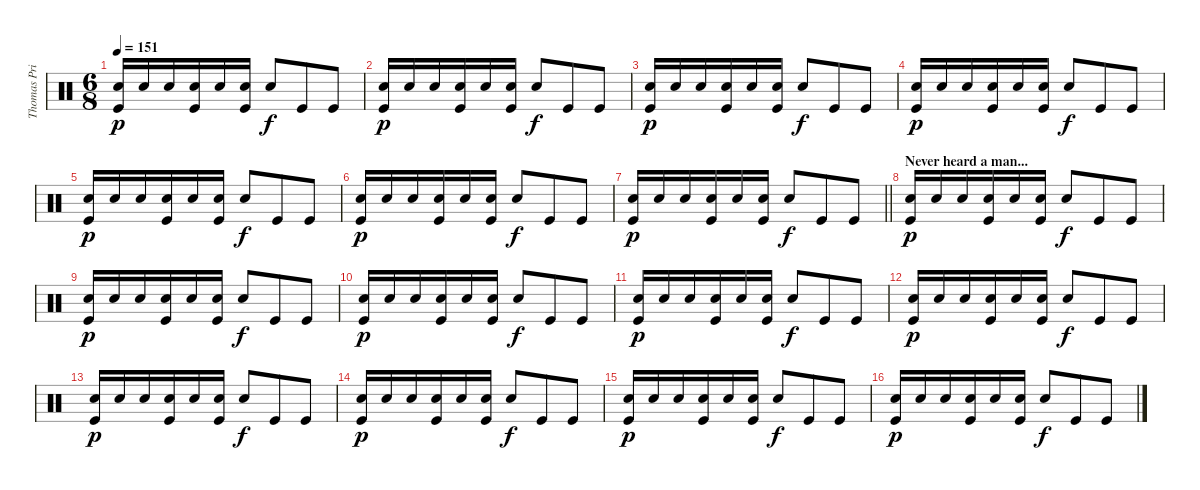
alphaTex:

\track ("Thomas Pridgen" "Thomas Pri") {instrument percussion}
\staff {score}
\articulation defaults
\ts (6 8)
\tempo 151
\clef neutral
\ks c
("Snare (hit) 2" "Kick (hit)").16{dy p} "Snare (hit) 2".16 "Snare (hit) 2".16 ("Snare (hit) 2" "Kick (hit)").16 "Snare (hit) 2".16 ("Snare (hit) 2" "Kick (hit)").16 "Snare (hit) 2".8{dy f} "Kick (hit)".8 "Kick (hit)".8 |
("Snare (hit) 2" "Kick (hit)").16{dy p} "Snare (hit) 2".16 "Snare (hit) 2".16 ("Snare (hit) 2" "Kick (hit)").16 "Snare (hit) 2".16 ("Snare (hit) 2" "Kick (hit)").16 "Snare (hit) 2".8{dy f} "Kick (hit)".8 "Kick (hit)".8 |
("Snare (hit) 2" "Kick (hit)").16{dy p} "Snare (hit) 2".16 "Snare (hit) 2".16 ("Snare (hit) 2" "Kick (hit)").16 "Snare (hit) 2".16 ("Snare (hit) 2" "Kick (hit)").16 "Snare (hit) 2".8{dy f} "Kick (hit)".8 "Kick (hit)".8 |
("Snare (hit) 2" "Kick (hit)").16{dy p} "Snare (hit) 2".16 "Snare (hit) 2".16 ("Snare (hit) 2" "Kick (hit)").16 "Snare (hit) 2".16 ("Snare (hit) 2" "Kick (hit)").16 "Snare (hit) 2".8{dy f} "Kick (hit)".8 "Kick (hit)".8 |
("Snare (hit) 2" "Kick (hit)").16{dy p} "Snare (hit) 2".16 "Snare (hit) 2".16 ("Snare (hit) 2" "Kick (hit)").16 "Snare (hit) 2".16 ("Snare (hit) 2" "Kick (hit)").16 "Snare (hit) 2".8{dy f} "Kick (hit)".8 "Kick (hit)".8 |
("Snare (hit) 2" "Kick (hit)").16{dy p} "Snare (hit) 2".16 "Snare (hit) 2".16 ("Snare (hit) 2" "Kick (hit)").16 "Snare (hit) 2".16 ("Snare (hit) 2" "Kick (hit)").16 "Snare (hit) 2".8{dy f} "Kick (hit)".8 "Kick (hit)".8 |
\barLineRight lightlight
("Snare (hit) 2" "Kick (hit)").16{dy p} "Snare (hit) 2".16 "Snare (hit) 2".16 ("Snare (hit) 2" "Kick (hit)").16 "Snare (hit) 2".16 ("Snare (hit) 2" "Kick (hit)").16 "Snare (hit) 2".8{dy f} "Kick (hit)".8 "Kick (hit)".8 |
\section ("" "Never heard a man...")
("Snare (hit) 2" "Kick (hit)").16{dy p} "Snare (hit) 2".16 "Snare (hit) 2".16 ("Snare (hit) 2" "Kick (hit)").16 "Snare (hit) 2".16 ("Snare (hit) 2" "Kick (hit)").16 "Snare (hit) 2".8{dy f} "Kick (hit)".8 "Kick (hit)".8 |
("Snare (hit) 2" "Kick (hit)").16{dy p} "Snare (hit) 2".16 "Snare (hit) 2".16 ("Snare (hit) 2" "Kick (hit)").16 "Snare (hit) 2".16 ("Snare (hit) 2" "Kick (hit)").16 "Snare (hit) 2".8{dy f} "Kick (hit)".8 "Kick (hit)".8 |
("Snare (hit) 2" "Kick (hit)").16{dy p} "Snare (hit) 2".16 "Snare (hit) 2".16 ("Snare (hit) 2" "Kick (hit)").16 "Snare (hit) 2".16 ("Snare (hit) 2" "Kick (hit)").16 "Snare (hit) 2".8{dy f} "Kick (hit)".8 "Kick (hit)".8 |
("Snare (hit) 2" "Kick (hit)").16{dy p} "Snare (hit) 2".16 "Snare (hit) 2".16 ("Snare (hit) 2" "Kick (hit)").16 "Snare (hit) 2".16 ("Snare (hit) 2" "Kick (hit)").16 "Snare (hit) 2".8{dy f} "Kick (hit)".8 "Kick (hit)".8 |
("Snare (hit) 2" "Kick (hit)").16{dy p} "Snare (hit) 2".16 "Snare (hit) 2".16 ("Snare (hit) 2" "Kick (hit)").16 "Snare (hit) 2".16 ("Snare (hit) 2" "Kick (hit)").16 "Snare (hit) 2".8{dy f} "Kick (hit)".8 "Kick (hit)".8 |
("Snare (hit) 2" "Kick (hit)").16{dy p} "Snare (hit) 2".16 "Snare (hit) 2".16 ("Snare (hit) 2" "Kick (hit)").16 "Snare (hit) 2".16 ("Snare (hit) 2" "Kick (hit)").16 "Snare (hit) 2".8{dy f} "Kick (hit)".8 "Kick (hit)".8 |
("Snare (hit) 2" "Kick (hit)").16{dy p} "Snare (hit) 2".16 "Snare (hit) 2".16 ("Snare (hit) 2" "Kick (hit)").16 "Snare (hit) 2".16 ("Snare (hit) 2" "Kick (hit)").16 "Snare (hit) 2".8{dy f} "Kick (hit)".8 "Kick (hit)".8 |
("Snare (hit) 2" "Kick (hit)").16{dy p} "Snare (hit) 2".16 "Snare (hit) 2".16 ("Snare (hit) 2" "Kick (hit)").16 "Snare (hit) 2".16 ("Snare (hit) 2" "Kick (hit)").16 "Snare (hit) 2".8{dy f} "Kick (hit)".8 "Kick (hit)".8 |
("Snare (hit) 2" "Kick (hit)").16{dy p} "Snare (hit) 2".16 "Snare (hit) 2".16 ("Snare (hit) 2" "Kick (hit)").16 "Snare (hit) 2".16 ("Snare (hit) 2" "Kick (hit)").16 "Snare (hit) 2".8{dy f} "Kick (hit)".8 "Kick (hit)".8
